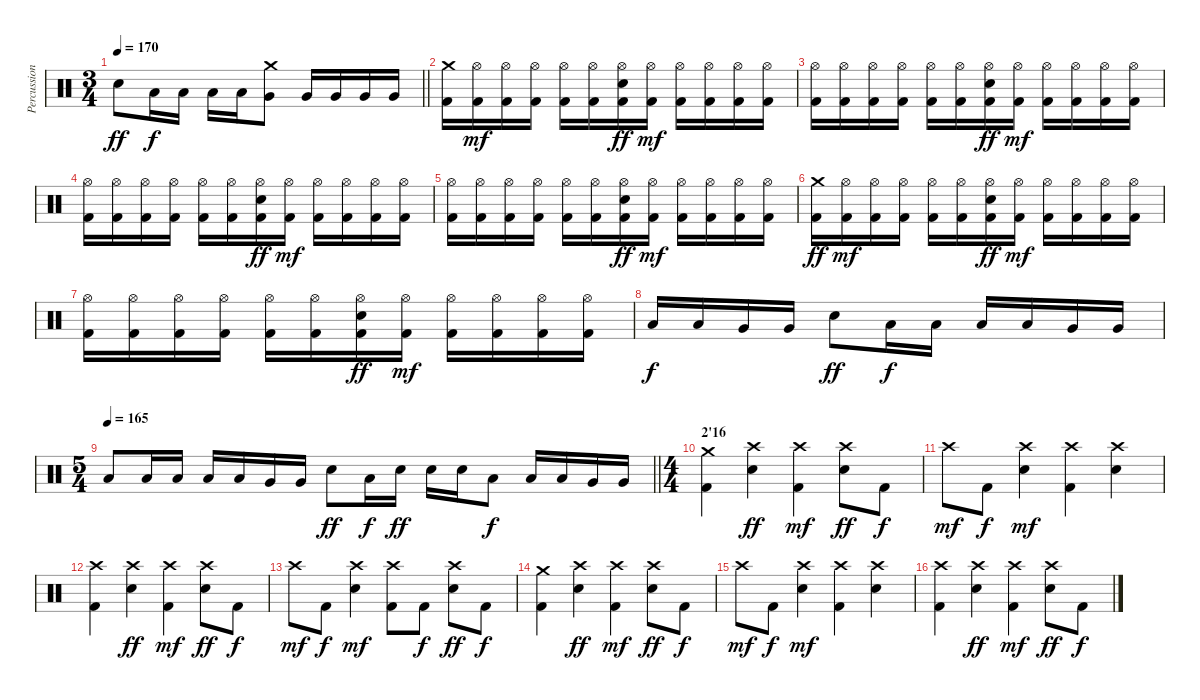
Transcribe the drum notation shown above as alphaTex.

\track ("Percussions" "Percussion") {instrument percussion}
\staff {score}
\articulation defaults
\ts (3 4)
\tempo 170
\clef neutral
\barLineRight lightlight
\ks c "Electric Snare (hit)".8{dy ff} "Low Tom (hit)".16{dy f} "Low Tom (hit)".16 "Low Tom (hit)".16 "Low Tom (hit)".16
("Crash medium (hit)" "Very Low Tom (hit)").8 "Very Low Tom (hit)".16 "Very Low Tom (hit)".16 "Very Low Tom (hit)".16 "Very Low Tom (hit)".16 |
("Crash medium (hit)" "Kick (hit) 2").16 ("Hi-Hat (open)" "Kick (hit) 2").16{dy mf} ("Hi-Hat (open)" "Kick (hit) 2").16 ("Hi-Hat (open)" "Kick (hit) 2").16 ("Hi-Hat (open)" "Kick (hit) 2").16 ("Hi-Hat (open)" "Kick (hit) 2").16 ("Hi-Hat (open)" "Electric Snare (hit)" "Kick (hit) 2").16{dy ff} ("Hi-Hat (open)" "Kick (hit) 2").16{dy mf} ("Hi-Hat (open)" "Kick (hit) 2").16 ("Hi-Hat (open)" "Kick (hit) 2").16 ("Hi-Hat (open)" "Kick (hit) 2").16 ("Hi-Hat (open)" "Kick (hit) 2").16 |
("Hi-Hat (open)" "Kick (hit) 2").16 ("Hi-Hat (open)" "Kick (hit) 2").16 ("Hi-Hat (open)" "Kick (hit) 2").16 ("Hi-Hat (open)" "Kick (hit) 2").16 ("Hi-Hat (open)" "Kick (hit) 2").16 ("Hi-Hat (open)" "Kick (hit) 2").16 ("Hi-Hat (open)" "Electric Snare (hit)" "Kick (hit) 2").16{dy ff} ("Hi-Hat (open)" "Kick (hit) 2").16{dy mf} ("Hi-Hat (open)" "Kick (hit) 2").16 ("Hi-Hat (open)" "Kick (hit) 2").16 ("Hi-Hat (open)" "Kick (hit) 2").16 ("Hi-Hat (open)" "Kick (hit) 2").16 |
("Hi-Hat (open)" "Kick (hit) 2").16 ("Hi-Hat (open)" "Kick (hit) 2").16 ("Hi-Hat (open)" "Kick (hit) 2").16 ("Hi-Hat (open)" "Kick (hit) 2").16 ("Hi-Hat (open)" "Kick (hit) 2").16 ("Hi-Hat (open)" "Kick (hit) 2").16 ("Hi-Hat (open)" "Electric Snare (hit)" "Kick (hit) 2").16{dy ff} ("Hi-Hat (open)" "Kick (hit) 2").16{dy mf} ("Hi-Hat (open)" "Kick (hit) 2").16 ("Hi-Hat (open)" "Kick (hit) 2").16 ("Hi-Hat (open)" "Kick (hit) 2").16 ("Hi-Hat (open)" "Kick (hit) 2").16 |
("Hi-Hat (open)" "Kick (hit) 2").16 ("Hi-Hat (open)" "Kick (hit) 2").16 ("Hi-Hat (open)" "Kick (hit) 2").16 ("Hi-Hat (open)" "Kick (hit) 2").16 ("Hi-Hat (open)" "Kick (hit) 2").16 ("Hi-Hat (open)" "Kick (hit) 2").16 ("Hi-Hat (open)" "Electric Snare (hit)" "Kick (hit) 2").16{dy ff} ("Hi-Hat (open)" "Kick (hit) 2").16{dy mf} ("Hi-Hat (open)" "Kick (hit) 2").16 ("Hi-Hat (open)" "Kick (hit) 2").16 ("Hi-Hat (open)" "Kick (hit) 2").16 ("Hi-Hat (open)" "Kick (hit) 2").16 |
("Crash medium (hit)" "Kick (hit) 2").16{dy ff} ("Hi-Hat (open)" "Kick (hit) 2").16{dy mf} ("Hi-Hat (open)" "Kick (hit) 2").16 ("Hi-Hat (open)" "Kick (hit) 2").16 ("Hi-Hat (open)" "Kick (hit) 2").16 ("Hi-Hat (open)" "Kick (hit) 2").16 ("Hi-Hat (open)" "Electric Snare (hit)" "Kick (hit) 2").16{dy ff} ("Hi-Hat (open)" "Kick (hit) 2").16{dy mf} ("Hi-Hat (open)" "Kick (hit) 2").16 ("Hi-Hat (open)" "Kick (hit) 2").16 ("Hi-Hat (open)" "Kick (hit) 2").16 ("Hi-Hat (open)" "Kick (hit) 2").16 |
("Hi-Hat (open)" "Kick (hit) 2").16 ("Hi-Hat (open)" "Kick (hit) 2").16 ("Hi-Hat (open)" "Kick (hit) 2").16 ("Hi-Hat (open)" "Kick (hit) 2").16 ("Hi-Hat (open)" "Kick (hit) 2").16 ("Hi-Hat (open)" "Kick (hit) 2").16 ("Hi-Hat (open)" "Electric Snare (hit)" "Kick (hit) 2").16{dy ff} ("Hi-Hat (open)" "Kick (hit) 2").16{dy mf} ("Hi-Hat (open)" "Kick (hit) 2").16 ("Hi-Hat (open)" "Kick (hit) 2").16 ("Hi-Hat (open)" "Kick (hit) 2").16 ("Hi-Hat (open)" "Kick (hit) 2").16 |
"Low Tom (hit)".16{dy f} "Low Tom (hit)".16 "Very Low Tom (hit)".16 "Very Low Tom (hit)".16 "Electric Snare (hit)".8{dy ff} "Low Floor Tom (hit)".16{dy f} "Low Floor Tom (hit)".16 "Low Tom (hit)".16 "Low Tom (hit)".16 "Very Low Tom (hit)".16 "Very Low Tom (hit)".16 |
\ts (5 4)
\tempo 165
\barLineRight lightlight "Low Floor Tom (hit)".8 "Low Floor Tom (hit)".16 "Low Floor Tom (hit)".16 "Low Tom (hit)".16 "Low Tom (hit)".16 "Very Low Tom (hit)".16 "Very Low Tom (hit)".16 "Electric Snare (hit)".8{dy ff} "Low Floor Tom (hit)".16{dy f} "Electric Snare (hit)".16{dy ff} "Electric Snare (hit)".16 "Electric Snare (hit)".16 "Low Floor Tom (hit)".8{dy f} "Low Tom (hit)".16 "Low Tom (hit)".16 "Very Low Tom (hit)".16 "Very Low Tom (hit)".16
|
\ts (4 4)
\section ("" "2'16")
("Crash medium (hit)" "Kick (hit) 2").4 ("Crash high (hit)" "Electric Snare (hit)").4{dy ff} ("Crash high (hit)" "Kick (hit) 2").4{dy mf} ("Crash high (hit)" "Electric Snare (hit)").8{dy ff} "Kick (hit) 2".8{dy f} |
"Crash high (hit)".8{dy mf} "Kick (hit) 2".8{dy f} ("Crash high (hit)" "Electric Snare (hit)").4{dy mf} ("Crash high (hit)" "Kick (hit) 2").4 ("Crash high (hit)" "Electric Snare (hit)").4 |
("Crash high (hit)" "Kick (hit) 2").4 ("Crash high (hit)" "Electric Snare (hit)").4{dy ff} ("Crash high (hit)" "Kick (hit) 2").4{dy mf} ("Crash high (hit)" "Electric Snare (hit)").8{dy ff} "Kick (hit) 2".8{dy f} |
"Crash high (hit)".8{dy mf} "Kick (hit) 2".8{dy f} ("Crash high (hit)" "Electric Snare (hit)").4{dy mf} ("Crash high (hit)" "Kick (hit) 2").8 "Kick (hit) 2".8{dy f} ("Crash high (hit)" "Electric Snare (hit)").8{dy ff} "Kick (hit) 2".8{dy f} |
("Crash medium (hit)" "Kick (hit) 2").4 ("Crash high (hit)" "Electric Snare (hit)").4{dy ff} ("Crash high (hit)" "Kick (hit) 2").4{dy mf} ("Crash high (hit)" "Electric Snare (hit)").8{dy ff} "Kick (hit) 2".8{dy f} |
"Crash high (hit)".8{dy mf} "Kick (hit) 2".8{dy f} ("Crash high (hit)" "Electric Snare (hit)").4{dy mf} ("Crash high (hit)" "Kick (hit) 2").4 ("Crash high (hit)" "Electric Snare (hit)").4 |
("Crash high (hit)" "Kick (hit) 2").4 ("Crash high (hit)" "Electric Snare (hit)").4{dy ff} ("Crash high (hit)" "Kick (hit) 2").4{dy mf} ("Crash high (hit)" "Electric Snare (hit)").8{dy ff} "Kick (hit) 2".8{dy f}
